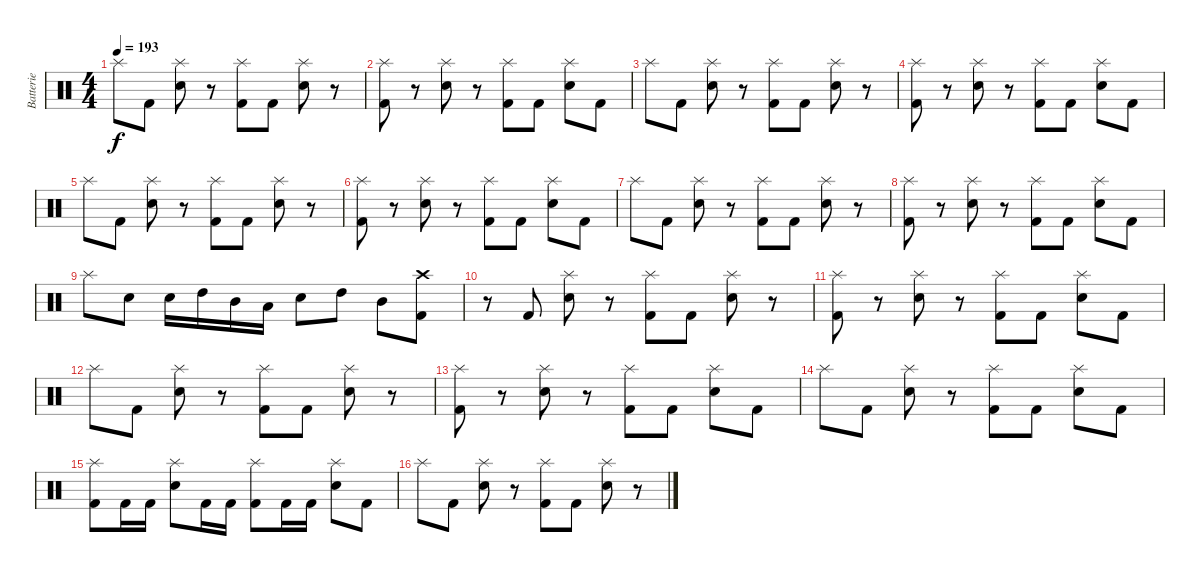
\track ("Batterie" "Batterie") {instrument percussion}
\staff {score}
\articulation defaults
\ts (4 4)
\tempo 193
\clef neutral
\ks c "Splash (hit)".8{dy f} "Kick (hit) 2".8
("Electric Snare (hit)" "Splash (hit)").8 r.8 ("Kick (hit) 2" "Splash (hit)").8 "Kick (hit) 2".8 ("Electric Snare (hit)" "Splash (hit)").8 r.8 |
("Kick (hit) 2" "Splash (hit)").8 r.8 ("Electric Snare (hit)" "Splash (hit)").8 r.8 ("Kick (hit) 2" "Splash (hit)").8 "Kick (hit) 2".8 ("Electric Snare (hit)" "Splash (hit)").8 "Kick (hit) 2".8 |
"Splash (hit)".8 "Kick (hit) 2".8 ("Electric Snare (hit)" "Splash (hit)").8 r.8 ("Kick (hit) 2" "Splash (hit)").8 "Kick (hit) 2".8 ("Electric Snare (hit)" "Splash (hit)").8 r.8 |
("Kick (hit) 2" "Splash (hit)").8 r.8 ("Electric Snare (hit)" "Splash (hit)").8 r.8 ("Kick (hit) 2" "Splash (hit)").8 "Kick (hit) 2".8 ("Electric Snare (hit)" "Splash (hit)").8 "Kick (hit) 2".8 |
"Splash (hit)".8 "Kick (hit) 2".8 ("Electric Snare (hit)" "Splash (hit)").8 r.8 ("Kick (hit) 2" "Splash (hit)").8 "Kick (hit) 2".8 ("Electric Snare (hit)" "Splash (hit)").8 r.8 |
("Kick (hit) 2" "Splash (hit)").8 r.8 ("Electric Snare (hit)" "Splash (hit)").8 r.8 ("Kick (hit) 2" "Splash (hit)").8 "Kick (hit) 2".8 ("Electric Snare (hit)" "Splash (hit)").8 "Kick (hit) 2".8 |
"Splash (hit)".8 "Kick (hit) 2".8 ("Electric Snare (hit)" "Splash (hit)").8 r.8 ("Kick (hit) 2" "Splash (hit)").8 "Kick (hit) 2".8 ("Electric Snare (hit)" "Splash (hit)").8 r.8 |
("Kick (hit) 2" "Splash (hit)").8 r.8 ("Electric Snare (hit)" "Splash (hit)").8 r.8 ("Kick (hit) 2" "Splash (hit)").8 "Kick (hit) 2".8 ("Electric Snare (hit)" "Splash (hit)").8 "Kick (hit) 2".8 |
"Splash (hit)".8 "Electric Snare (hit)".8 "Electric Snare (hit)".16 "High Tom (hit)".16 "Mid Tom (hit)".16 "Low Tom (hit)".16 "Electric Snare (hit)".8 "High Tom (hit)".8 "Mid Tom (hit)".8 ("Kick (hit) 2" "Crash high (hit)").8 |
r.8 "Kick (hit) 2".8 ("Electric Snare (hit)" "Splash (hit)").8 r.8 ("Kick (hit) 2" "Splash (hit)").8 "Kick (hit) 2".8 ("Electric Snare (hit)" "Splash (hit)").8 r.8 |
("Kick (hit) 2" "Splash (hit)").8 r.8 ("Electric Snare (hit)" "Splash (hit)").8 r.8 ("Kick (hit) 2" "Splash (hit)").8 "Kick (hit) 2".8 ("Electric Snare (hit)" "Splash (hit)").8 "Kick (hit) 2".8 |
"Splash (hit)".8 "Kick (hit) 2".8 ("Electric Snare (hit)" "Splash (hit)").8 r.8 ("Kick (hit) 2" "Splash (hit)").8 "Kick (hit) 2".8 ("Electric Snare (hit)" "Splash (hit)").8 r.8 |
("Kick (hit) 2" "Splash (hit)").8 r.8 ("Electric Snare (hit)" "Splash (hit)").8 r.8 ("Kick (hit) 2" "Splash (hit)").8 "Kick (hit) 2".8 ("Electric Snare (hit)" "Splash (hit)").8 "Kick (hit) 2".8 |
"Splash (hit)".8 "Kick (hit) 2".8 ("Electric Snare (hit)" "Splash (hit)").8 r.8 ("Kick (hit) 2" "Splash (hit)").8 "Kick (hit) 2".8 ("Electric Snare (hit)" "Splash (hit)").8 "Kick (hit) 2".8 |
("Kick (hit) 2" "Splash (hit)").8 "Kick (hit) 2".16 "Kick (hit) 2".16 ("Electric Snare (hit)" "Splash (hit)").8 "Kick (hit) 2".16 "Kick (hit) 2".16 ("Kick (hit) 2" "Splash (hit)").8 "Kick (hit) 2".16 "Kick (hit) 2".16 ("Electric Snare (hit)" "Splash (hit)").8 "Kick (hit) 2".8 |
"Splash (hit)".8 "Kick (hit) 2".8 ("Electric Snare (hit)" "Splash (hit)").8 r.8 ("Kick (hit) 2" "Splash (hit)").8 "Kick (hit) 2".8 ("Electric Snare (hit)" "Splash (hit)").8 r.8
